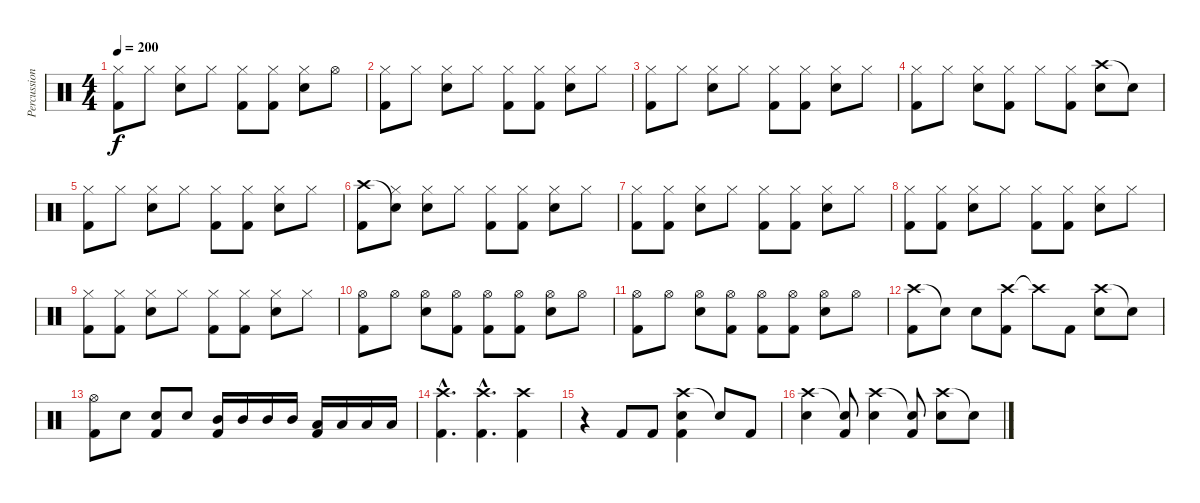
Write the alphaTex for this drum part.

\track ("Percussions" "Percussion") {instrument percussion}
\staff {score}
\articulation defaults
\ts (4 4)
\tempo 200
\clef neutral
\ks c
("Hi-Hat (closed)" "Kick (hit) 2").8{dy f} "Hi-Hat (closed)".8 ("Hi-Hat (closed)" "Electric Snare (hit)").8 "Hi-Hat (closed)".8 ("Hi-Hat (closed)" "Kick (hit) 2").8 ("Hi-Hat (closed)" "Kick (hit) 2").8 ("Hi-Hat (closed)" "Electric Snare (hit)").8 "Hi-Hat (open)".8 |
("Hi-Hat (closed)" "Kick (hit) 2").8 "Hi-Hat (closed)".8 ("Hi-Hat (closed)" "Electric Snare (hit)").8 "Hi-Hat (closed)".8 ("Hi-Hat (closed)" "Kick (hit) 2").8 ("Hi-Hat (closed)" "Kick (hit) 2").8 ("Hi-Hat (closed)" "Electric Snare (hit)").8 "Hi-Hat (closed)".8 |
("Hi-Hat (closed)" "Kick (hit) 2").8 "Hi-Hat (closed)".8 ("Hi-Hat (closed)" "Electric Snare (hit)").8 "Hi-Hat (closed)".8 ("Hi-Hat (closed)" "Kick (hit) 2").8 ("Hi-Hat (closed)" "Kick (hit) 2").8 ("Hi-Hat (closed)" "Electric Snare (hit)").8 "Hi-Hat (closed)".8 |
("Hi-Hat (closed)" "Kick (hit) 2").8 "Hi-Hat (closed)".8 ("Hi-Hat (closed)" "Electric Snare (hit)").8 ("Hi-Hat (closed)" "Kick (hit) 2").8 "Hi-Hat (closed)".8 ("Hi-Hat (closed)" "Kick (hit) 2").8 ("Crash high (hit)" "Electric Snare (hit)").8 "Snare (hit)"{t}.8 |
("Hi-Hat (closed)" "Kick (hit) 2").8 "Hi-Hat (closed)".8 ("Hi-Hat (closed)" "Electric Snare (hit)").8 "Hi-Hat (closed)".8 ("Hi-Hat (closed)" "Kick (hit) 2").8 ("Hi-Hat (closed)" "Kick (hit) 2").8 ("Hi-Hat (closed)" "Electric Snare (hit)").8 "Hi-Hat (closed)".8 |
("Crash high (hit)" "Kick (hit) 2").8 ("Snare (hit)"{t} "Hi-Hat (closed)").8 ("Hi-Hat (closed)" "Electric Snare (hit)").8 "Hi-Hat (closed)".8 ("Hi-Hat (closed)" "Kick (hit) 2").8 ("Hi-Hat (closed)" "Kick (hit) 2").8 ("Hi-Hat (closed)" "Electric Snare (hit)").8 "Hi-Hat (closed)".8 |
("Hi-Hat (closed)" "Kick (hit) 2").8 ("Hi-Hat (closed)" "Kick (hit) 2").8 ("Hi-Hat (closed)" "Electric Snare (hit)").8 "Hi-Hat (closed)".8 ("Hi-Hat (closed)" "Kick (hit) 2").8 ("Hi-Hat (closed)" "Kick (hit) 2").8 ("Hi-Hat (closed)" "Electric Snare (hit)").8 "Hi-Hat (closed)".8 |
("Hi-Hat (closed)" "Kick (hit) 2").8 ("Hi-Hat (closed)" "Kick (hit) 2").8 ("Hi-Hat (closed)" "Electric Snare (hit)").8 "Hi-Hat (closed)".8 ("Hi-Hat (closed)" "Kick (hit) 2").8 ("Hi-Hat (closed)" "Kick (hit) 2").8 ("Hi-Hat (closed)" "Electric Snare (hit)").8 "Hi-Hat (closed)".8 |
("Hi-Hat (closed)" "Kick (hit) 2").8 ("Hi-Hat (closed)" "Kick (hit) 2").8 ("Hi-Hat (closed)" "Electric Snare (hit)").8 "Hi-Hat (closed)".8 ("Hi-Hat (closed)" "Kick (hit) 2").8 ("Hi-Hat (closed)" "Kick (hit) 2").8 ("Hi-Hat (closed)" "Electric Snare (hit)").8 "Hi-Hat (closed)".8 |
("Hi-Hat (open)" "Kick (hit) 2").8 "Hi-Hat (open)".8 ("Hi-Hat (open)" "Electric Snare (hit)").8 ("Hi-Hat (open)" "Kick (hit) 2").8 ("Hi-Hat (open)" "Kick (hit) 2").8 ("Hi-Hat (open)" "Kick (hit) 2").8 ("Hi-Hat (open)" "Electric Snare (hit)").8 "Hi-Hat (open)".8 |
("Hi-Hat (open)" "Kick (hit) 2").8 "Hi-Hat (open)".8 ("Hi-Hat (open)" "Electric Snare (hit)").8 ("Hi-Hat (open)" "Kick (hit) 2").8 ("Hi-Hat (open)" "Kick (hit) 2").8 ("Hi-Hat (open)" "Kick (hit) 2").8 ("Hi-Hat (open)" "Electric Snare (hit)").8 "Hi-Hat (open)".8 |
("Crash high (hit)" "Kick (hit) 2").8 "Snare (hit)"{t}.8 "Electric Snare (hit)".8 ("Crash high (hit)" "Kick (hit) 2").8 "Crash high (hit)"{t}.8 "Kick (hit) 2".8 ("Crash high (hit)" "Electric Snare (hit)").8 "Snare (hit)"{t}.8 |
("Hi-Hat (open)" "Kick (hit) 2").8 "Electric Snare (hit)".8 ("Electric Snare (hit)" "Kick (hit) 2").8 "Electric Snare (hit)".8 ("Mid Tom (hit)" "Kick (hit) 2").16 "Mid Tom (hit)".16 "Mid Tom (hit)".16 "Mid Tom (hit)".16 ("Low Tom (hit)" "Kick (hit) 2").16 "Low Tom (hit)".16 "Low Tom (hit)".16 "Low Tom (hit)".16 |
("Crash high (hit)"{hac} "Kick (hit) 2"{hac}).4{d} ("Crash high (hit)"{hac} "Kick (hit) 2"{hac}).4{d} ("Crash high (hit)" "Kick (hit) 2").4 |
r.4 "Kick (hit) 2".8 "Kick (hit) 2".8 ("Crash high (hit)" "Electric Snare (hit)" "Kick (hit) 2").4 "Snare (hit)"{t}.8 "Kick (hit) 2".8 |
("Crash high (hit)" "Electric Snare (hit)").4 ("Snare (hit)"{t} "Kick (hit) 2").8 ("Crash high (hit)" "Electric Snare (hit)").4 ("Snare (hit)"{t} "Kick (hit) 2").8 ("Crash high (hit)" "Electric Snare (hit)").8 "Snare (hit)"{t}.8
